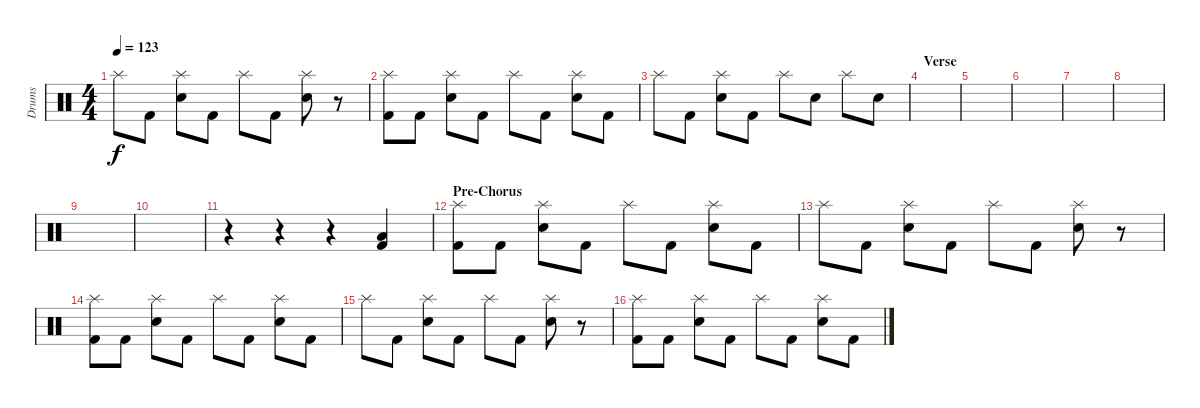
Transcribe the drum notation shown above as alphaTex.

\track ("Drums" "Drums") {instrument percussion}
\staff {score}
\articulation defaults
\ts (4 4)
\tempo 123
\clef neutral
\ks c "Splash (hit)".8{dy f} "Kick (hit) 2".8
("Splash (hit)" "Electric Snare (hit)").8 "Kick (hit) 2".8 "Splash (hit)".8 "Kick (hit) 2".8 ("Splash (hit)" "Electric Snare (hit)").8 r.8 |
("Splash (hit)" "Kick (hit) 2").8 "Kick (hit) 2".8 ("Splash (hit)" "Electric Snare (hit)").8 "Kick (hit) 2".8 "Splash (hit)".8 "Kick (hit) 2".8 ("Splash (hit)" "Electric Snare (hit)").8 "Kick (hit) 2".8 |
"Splash (hit)".8 "Kick (hit) 2".8 ("Splash (hit)" "Electric Snare (hit)").8 "Kick (hit) 2".8 "Splash (hit)".8 "Electric Snare (hit)".8 "Splash (hit)".8 "Electric Snare (hit)".8 |
\section ("" "Verse")
|
|
|
|
|
|
|
r.4 r.4 r.4 ("Low Floor Tom (hit)" "Kick (hit) 2").4 |
\section ("" "Pre-Chorus")
("Splash (hit)" "Kick (hit) 2").8 "Kick (hit) 2".8 ("Splash (hit)" "Electric Snare (hit)").8 "Kick (hit) 2".8 "Splash (hit)".8 "Kick (hit) 2".8 ("Splash (hit)" "Electric Snare (hit)").8 "Kick (hit) 2".8 |
"Splash (hit)".8 "Kick (hit) 2".8 ("Splash (hit)" "Electric Snare (hit)").8 "Kick (hit) 2".8 "Splash (hit)".8 "Kick (hit) 2".8 ("Splash (hit)" "Electric Snare (hit)").8 r.8 |
("Splash (hit)" "Kick (hit) 2").8 "Kick (hit) 2".8 ("Splash (hit)" "Electric Snare (hit)").8 "Kick (hit) 2".8 "Splash (hit)".8 "Kick (hit) 2".8 ("Splash (hit)" "Electric Snare (hit)").8 "Kick (hit) 2".8 |
"Splash (hit)".8 "Kick (hit) 2".8 ("Splash (hit)" "Electric Snare (hit)").8 "Kick (hit) 2".8 "Splash (hit)".8 "Kick (hit) 2".8 ("Splash (hit)" "Electric Snare (hit)").8 r.8 |
("Splash (hit)" "Kick (hit) 2").8 "Kick (hit) 2".8 ("Splash (hit)" "Electric Snare (hit)").8 "Kick (hit) 2".8 "Splash (hit)".8 "Kick (hit) 2".8 ("Splash (hit)" "Electric Snare (hit)").8 "Kick (hit) 2".8
